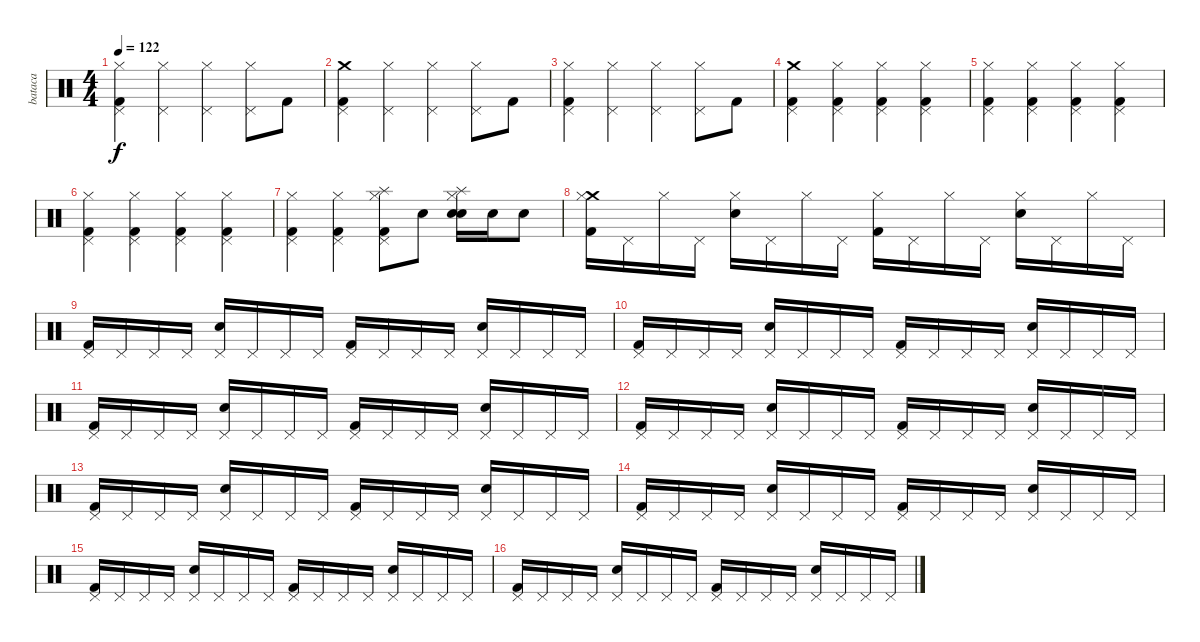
\track ("bataca" "bataca") {instrument percussion}
\staff {score}
\articulation defaults
\ts (4 4)
\tempo 122
\clef neutral
\ks c
("Kick (hit) 2" "Pedal Hi-Hat (hit)" "Hi-Hat (closed)").4{dy f} ("Pedal Hi-Hat (hit)" "Hi-Hat (closed)").4 ("Pedal Hi-Hat (hit)" "Hi-Hat (closed)").4 ("Pedal Hi-Hat (hit)" "Hi-Hat (closed)").8 "Kick (hit) 2".8 |
("Kick (hit) 2" "Pedal Hi-Hat (hit)" "Crash medium (hit)").4 ("Pedal Hi-Hat (hit)" "Hi-Hat (closed)").4 ("Pedal Hi-Hat (hit)" "Hi-Hat (closed)").4 ("Pedal Hi-Hat (hit)" "Hi-Hat (closed)").8 "Kick (hit) 2".8 |
("Kick (hit) 2" "Pedal Hi-Hat (hit)" "Hi-Hat (closed)").4 ("Pedal Hi-Hat (hit)" "Hi-Hat (closed)").4 ("Pedal Hi-Hat (hit)" "Hi-Hat (closed)").4 ("Pedal Hi-Hat (hit)" "Hi-Hat (closed)").8 "Kick (hit) 2".8 |
("Kick (hit) 2" "Pedal Hi-Hat (hit)" "Crash medium (hit)").4 ("Kick (hit) 2" "Pedal Hi-Hat (hit)" "Hi-Hat (closed)").4 ("Kick (hit) 2" "Pedal Hi-Hat (hit)" "Hi-Hat (closed)").4 ("Kick (hit) 2" "Pedal Hi-Hat (hit)" "Hi-Hat (closed)").4 |
("Kick (hit) 2" "Pedal Hi-Hat (hit)" "Hi-Hat (closed)").4 ("Kick (hit) 2" "Pedal Hi-Hat (hit)" "Hi-Hat (closed)").4 ("Kick (hit) 2" "Pedal Hi-Hat (hit)" "Hi-Hat (closed)").4 ("Kick (hit) 2" "Pedal Hi-Hat (hit)" "Hi-Hat (closed)").4 |
("Kick (hit) 2" "Pedal Hi-Hat (hit)" "Hi-Hat (closed)").4 ("Kick (hit) 2" "Pedal Hi-Hat (hit)" "Hi-Hat (closed)").4 ("Kick (hit) 2" "Pedal Hi-Hat (hit)" "Hi-Hat (closed)").4 ("Kick (hit) 2" "Pedal Hi-Hat (hit)" "Hi-Hat (closed)").4 |
("Kick (hit) 2" "Pedal Hi-Hat (hit)" "Hi-Hat (closed)").4 ("Kick (hit) 2" "Pedal Hi-Hat (hit)" "Hi-Hat (closed)").4 ("Splash (hit)" "Kick (hit) 2" "Pedal Hi-Hat (hit)" "Hi-Hat (closed)").8 "Snare (hit) 2".8 ("Splash (hit)" "Snare (hit) 2" "Electric Snare (hit)" "Hi-Hat (closed)").16 "Snare (hit) 2".16 "Snare (hit) 2".8 |
("Kick (hit) 2" "Crash medium (hit)" "Hi-Hat (closed)").16 "Pedal Hi-Hat (hit)".16 "Hi-Hat (closed)".16 "Pedal Hi-Hat (hit)".16 ("Electric Snare (hit)" "Hi-Hat (closed)").16 "Pedal Hi-Hat (hit)".16 "Hi-Hat (closed)".16 "Pedal Hi-Hat (hit)".16 ("Kick (hit) 2" "Hi-Hat (closed)").16 "Pedal Hi-Hat (hit)".16 "Hi-Hat (closed)".16 "Pedal Hi-Hat (hit)".16 ("Electric Snare (hit)" "Hi-Hat (closed)").16 "Pedal Hi-Hat (hit)".16 "Hi-Hat (closed)".16 "Pedal Hi-Hat (hit)".16 |
("Kick (hit) 2" "Pedal Hi-Hat (hit)").16 "Pedal Hi-Hat (hit)".16 "Pedal Hi-Hat (hit)".16 "Pedal Hi-Hat (hit)".16 ("Electric Snare (hit)" "Pedal Hi-Hat (hit)").16 "Pedal Hi-Hat (hit)".16 "Pedal Hi-Hat (hit)".16 "Pedal Hi-Hat (hit)".16 ("Kick (hit) 2" "Pedal Hi-Hat (hit)").16 "Pedal Hi-Hat (hit)".16 "Pedal Hi-Hat (hit)".16 "Pedal Hi-Hat (hit)".16 ("Electric Snare (hit)" "Pedal Hi-Hat (hit)").16 "Pedal Hi-Hat (hit)".16 "Pedal Hi-Hat (hit)".16 "Pedal Hi-Hat (hit)".16 |
("Kick (hit) 2" "Pedal Hi-Hat (hit)").16 "Pedal Hi-Hat (hit)".16 "Pedal Hi-Hat (hit)".16 "Pedal Hi-Hat (hit)".16 ("Electric Snare (hit)" "Pedal Hi-Hat (hit)").16 "Pedal Hi-Hat (hit)".16 "Pedal Hi-Hat (hit)".16 "Pedal Hi-Hat (hit)".16 ("Kick (hit) 2" "Pedal Hi-Hat (hit)").16 "Pedal Hi-Hat (hit)".16 "Pedal Hi-Hat (hit)".16 "Pedal Hi-Hat (hit)".16 ("Electric Snare (hit)" "Pedal Hi-Hat (hit)").16 "Pedal Hi-Hat (hit)".16 "Pedal Hi-Hat (hit)".16 "Pedal Hi-Hat (hit)".16 |
("Kick (hit) 2" "Pedal Hi-Hat (hit)").16 "Pedal Hi-Hat (hit)".16 "Pedal Hi-Hat (hit)".16 "Pedal Hi-Hat (hit)".16 ("Electric Snare (hit)" "Pedal Hi-Hat (hit)").16 "Pedal Hi-Hat (hit)".16 "Pedal Hi-Hat (hit)".16 "Pedal Hi-Hat (hit)".16 ("Kick (hit) 2" "Pedal Hi-Hat (hit)").16 "Pedal Hi-Hat (hit)".16 "Pedal Hi-Hat (hit)".16 "Pedal Hi-Hat (hit)".16 ("Electric Snare (hit)" "Pedal Hi-Hat (hit)").16 "Pedal Hi-Hat (hit)".16 "Pedal Hi-Hat (hit)".16 "Pedal Hi-Hat (hit)".16 |
("Kick (hit) 2" "Pedal Hi-Hat (hit)").16 "Pedal Hi-Hat (hit)".16 "Pedal Hi-Hat (hit)".16 "Pedal Hi-Hat (hit)".16 ("Electric Snare (hit)" "Pedal Hi-Hat (hit)").16 "Pedal Hi-Hat (hit)".16 "Pedal Hi-Hat (hit)".16 "Pedal Hi-Hat (hit)".16 ("Kick (hit) 2" "Pedal Hi-Hat (hit)").16 "Pedal Hi-Hat (hit)".16 "Pedal Hi-Hat (hit)".16 "Pedal Hi-Hat (hit)".16 ("Electric Snare (hit)" "Pedal Hi-Hat (hit)").16 "Pedal Hi-Hat (hit)".16 "Pedal Hi-Hat (hit)".16 "Pedal Hi-Hat (hit)".16 |
("Kick (hit) 2" "Pedal Hi-Hat (hit)").16 "Pedal Hi-Hat (hit)".16 "Pedal Hi-Hat (hit)".16 "Pedal Hi-Hat (hit)".16 ("Electric Snare (hit)" "Pedal Hi-Hat (hit)").16 "Pedal Hi-Hat (hit)".16 "Pedal Hi-Hat (hit)".16 "Pedal Hi-Hat (hit)".16 ("Kick (hit) 2" "Pedal Hi-Hat (hit)").16 "Pedal Hi-Hat (hit)".16 "Pedal Hi-Hat (hit)".16 "Pedal Hi-Hat (hit)".16 ("Electric Snare (hit)" "Pedal Hi-Hat (hit)").16 "Pedal Hi-Hat (hit)".16 "Pedal Hi-Hat (hit)".16 "Pedal Hi-Hat (hit)".16 |
("Kick (hit) 2" "Pedal Hi-Hat (hit)").16 "Pedal Hi-Hat (hit)".16 "Pedal Hi-Hat (hit)".16 "Pedal Hi-Hat (hit)".16 ("Electric Snare (hit)" "Pedal Hi-Hat (hit)").16 "Pedal Hi-Hat (hit)".16 "Pedal Hi-Hat (hit)".16 "Pedal Hi-Hat (hit)".16 ("Kick (hit) 2" "Pedal Hi-Hat (hit)").16 "Pedal Hi-Hat (hit)".16 "Pedal Hi-Hat (hit)".16 "Pedal Hi-Hat (hit)".16 ("Electric Snare (hit)" "Pedal Hi-Hat (hit)").16 "Pedal Hi-Hat (hit)".16 "Pedal Hi-Hat (hit)".16 "Pedal Hi-Hat (hit)".16 |
("Kick (hit) 2" "Pedal Hi-Hat (hit)").16 "Pedal Hi-Hat (hit)".16 "Pedal Hi-Hat (hit)".16 "Pedal Hi-Hat (hit)".16 ("Electric Snare (hit)" "Pedal Hi-Hat (hit)").16 "Pedal Hi-Hat (hit)".16 "Pedal Hi-Hat (hit)".16 "Pedal Hi-Hat (hit)".16 ("Kick (hit) 2" "Pedal Hi-Hat (hit)").16 "Pedal Hi-Hat (hit)".16 "Pedal Hi-Hat (hit)".16 "Pedal Hi-Hat (hit)".16 ("Electric Snare (hit)" "Pedal Hi-Hat (hit)").16 "Pedal Hi-Hat (hit)".16 "Pedal Hi-Hat (hit)".16 "Pedal Hi-Hat (hit)".16 |
("Kick (hit) 2" "Pedal Hi-Hat (hit)").16 "Pedal Hi-Hat (hit)".16 "Pedal Hi-Hat (hit)".16 "Pedal Hi-Hat (hit)".16 ("Electric Snare (hit)" "Pedal Hi-Hat (hit)").16 "Pedal Hi-Hat (hit)".16 "Pedal Hi-Hat (hit)".16 "Pedal Hi-Hat (hit)".16 ("Kick (hit) 2" "Pedal Hi-Hat (hit)").16 "Pedal Hi-Hat (hit)".16 "Pedal Hi-Hat (hit)".16 "Pedal Hi-Hat (hit)".16 ("Electric Snare (hit)" "Pedal Hi-Hat (hit)").16 "Pedal Hi-Hat (hit)".16 "Pedal Hi-Hat (hit)".16 "Pedal Hi-Hat (hit)".16
